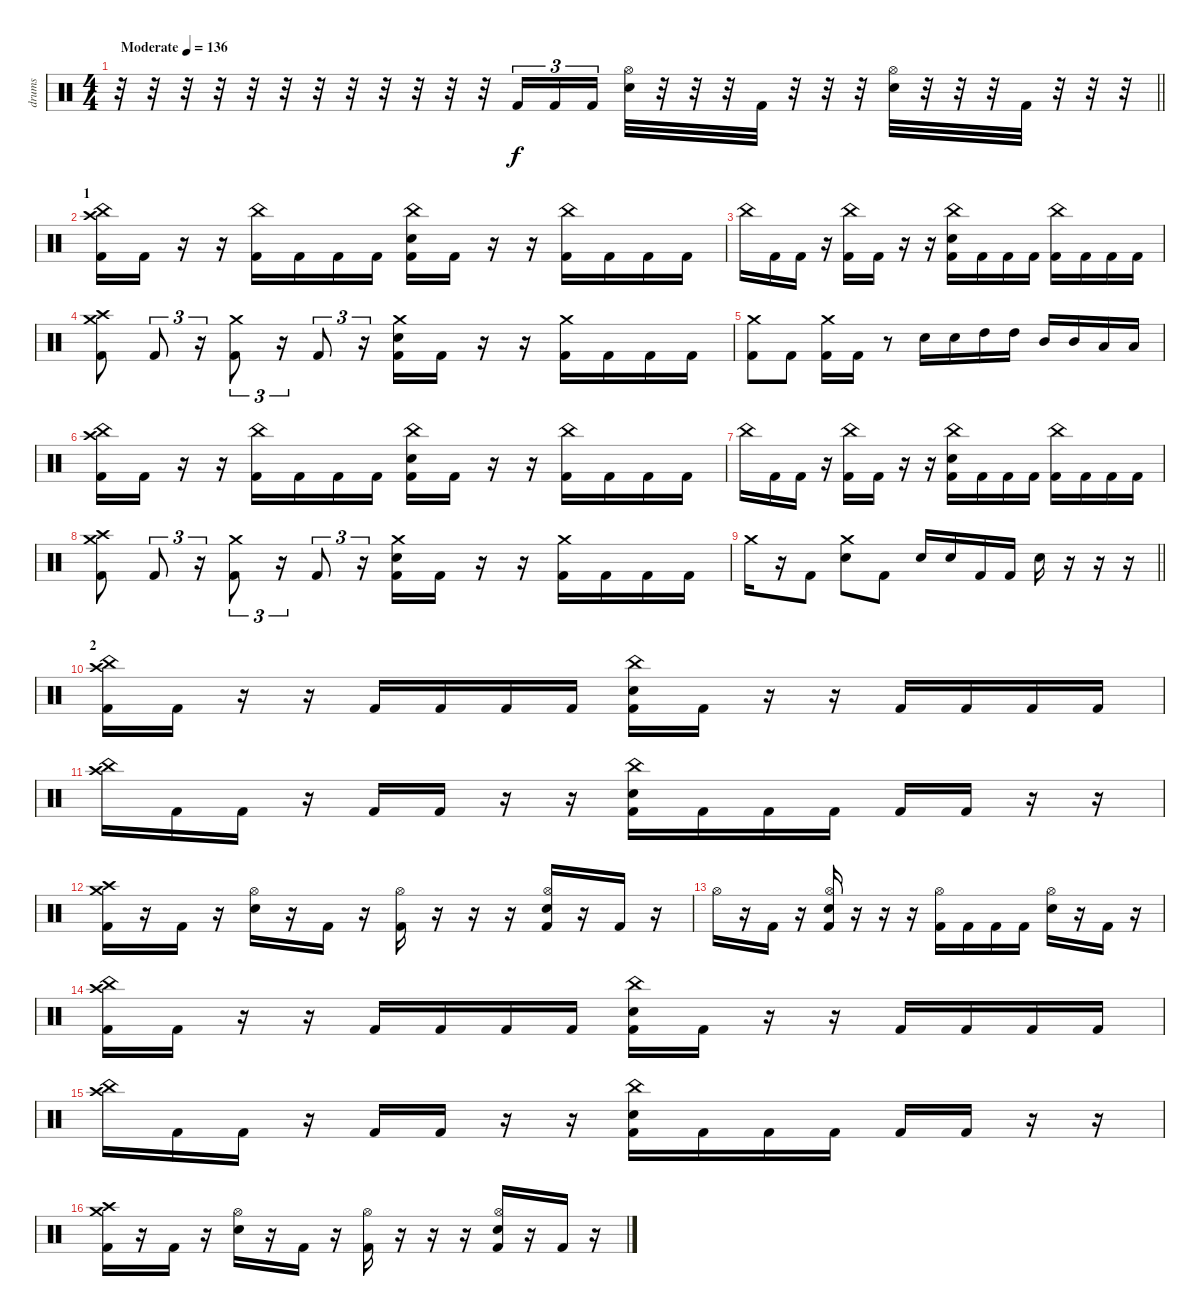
\track ("drums" "drums") {instrument percussion}
\staff {score}
\articulation defaults
\ts (4 4)
\tempo (136 "Moderate")
\clef neutral
\barLineRight lightlight
\ks c
r.32{dy f} r.32 r.32 r.32 r.32 r.32 r.32 r.32 r.32 r.32 r.32 r.32 "Kick (hit) 2".16{tu (3 2)} "Kick (hit) 2".16{tu (3 2)} "Kick (hit) 2".16{tu (3 2)} ("Hi-Hat (open)" "Electric Snare (hit)").32 r.32 r.32 r.32 "Kick (hit) 2".32 r.32 r.32 r.32 ("Hi-Hat (open)" "Electric Snare (hit)").32 r.32 r.32 r.32 "Kick (hit) 2".32 r.32 r.32 r.32 |
\section ("" "1")
("Crash high (hit)" "China (hit)" "Kick (hit) 2").16 "Kick (hit) 2".16 r.16 r.16 ("China (hit)" "Kick (hit) 2").16 "Kick (hit) 2".16 "Kick (hit) 2".16 "Kick (hit) 2".16 ("China (hit)" "Electric Snare (hit)" "Kick (hit) 2").16 "Kick (hit) 2".16 r.16 r.16 ("China (hit)" "Kick (hit) 2").16 "Kick (hit) 2".16 "Kick (hit) 2".16 "Kick (hit) 2".16 |
"China (hit)".16 "Kick (hit) 2".16 "Kick (hit) 2".16 r.16 ("China (hit)" "Kick (hit) 2").16 "Kick (hit) 2".16 r.16 r.16 ("China (hit)" "Electric Snare (hit)" "Kick (hit) 2").16 "Kick (hit) 2".16 "Kick (hit) 2".16 "Kick (hit) 2".16 ("China (hit)" "Kick (hit) 2").16 "Kick (hit) 2".16 "Kick (hit) 2".16 "Kick (hit) 2".16 |
("Crash medium (hit)" "Crash high (hit)" "Kick (hit) 2").8 "Kick (hit) 2".8{tu (3 2)} r.16{tu (3 2)} ("Crash medium (hit)" "Kick (hit) 2").8{tu (3 2)} r.16{tu (3 2)} "Kick (hit) 2".8{tu (3 2)} r.16{tu (3 2)} ("Crash medium (hit)" "Electric Snare (hit)" "Kick (hit) 2").16 "Kick (hit) 2".16 r.16 r.16 ("Crash medium (hit)" "Kick (hit) 2").16 "Kick (hit) 2".16 "Kick (hit) 2".16 "Kick (hit) 2".16 |
("Crash medium (hit)" "Kick (hit) 2").8 "Kick (hit) 2".8 ("Crash medium (hit)" "Kick (hit) 2").16 "Kick (hit) 2".16 r.8 "Electric Snare (hit)".16 "Electric Snare (hit)".16 "High Tom (hit)".16 "High Tom (hit)".16 "Mid Tom (hit)".16 "Mid Tom (hit)".16 "Low Floor Tom (hit)".16 "Low Floor Tom (hit)".16 |
("Crash high (hit)" "China (hit)" "Kick (hit) 2").16 "Kick (hit) 2".16 r.16 r.16 ("China (hit)" "Kick (hit) 2").16 "Kick (hit) 2".16 "Kick (hit) 2".16 "Kick (hit) 2".16 ("China (hit)" "Electric Snare (hit)" "Kick (hit) 2").16 "Kick (hit) 2".16 r.16 r.16 ("China (hit)" "Kick (hit) 2").16 "Kick (hit) 2".16 "Kick (hit) 2".16 "Kick (hit) 2".16 |
"China (hit)".16 "Kick (hit) 2".16 "Kick (hit) 2".16 r.16 ("China (hit)" "Kick (hit) 2").16 "Kick (hit) 2".16 r.16 r.16 ("China (hit)" "Electric Snare (hit)" "Kick (hit) 2").16 "Kick (hit) 2".16 "Kick (hit) 2".16 "Kick (hit) 2".16 ("China (hit)" "Kick (hit) 2").16 "Kick (hit) 2".16 "Kick (hit) 2".16 "Kick (hit) 2".16 |
("Crash medium (hit)" "Crash high (hit)" "Kick (hit) 2").8 "Kick (hit) 2".8{tu (3 2)} r.16{tu (3 2)} ("Crash medium (hit)" "Kick (hit) 2").8{tu (3 2)} r.16{tu (3 2)} "Kick (hit) 2".8{tu (3 2)} r.16{tu (3 2)} ("Crash medium (hit)" "Electric Snare (hit)" "Kick (hit) 2").16 "Kick (hit) 2".16 r.16 r.16 ("Crash medium (hit)" "Kick (hit) 2").16 "Kick (hit) 2".16 "Kick (hit) 2".16 "Kick (hit) 2".16 |
\barLineRight lightlight "Crash medium (hit)".16
r.16 "Kick (hit) 2".8 ("Crash medium (hit)" "Electric Snare (hit)").8 "Kick (hit) 2".8 "Electric Snare (hit)".16 "Electric Snare (hit)".16 "Kick (hit) 2".16 "Kick (hit) 2".16 "Electric Snare (hit)".16 r.16 r.16 r.16 |
\section ("" "2")
("Crash high (hit)" "China (hit)" "Kick (hit) 2").16 "Kick (hit) 2".16 r.16 r.16 "Kick (hit) 2".16 "Kick (hit) 2".16 "Kick (hit) 2".16 "Kick (hit) 2".16 ("China (hit)" "Electric Snare (hit)" "Kick (hit) 2").16 "Kick (hit) 2".16 r.16 r.16 "Kick (hit) 2".16 "Kick (hit) 2".16 "Kick (hit) 2".16 "Kick (hit) 2".16 |
("China (hit)" "Crash high (hit)").16 "Kick (hit) 2".16 "Kick (hit) 2".16 r.16 "Kick (hit) 2".16 "Kick (hit) 2".16 r.16 r.16 ("China (hit)" "Electric Snare (hit)" "Kick (hit) 2").16 "Kick (hit) 2".16 "Kick (hit) 2".16 "Kick (hit) 2".16 "Kick (hit) 2".16 "Kick (hit) 2".16 r.16 r.16 |
("Crash high (hit)" "Crash medium (hit)" "Kick (hit) 2").16 r.16 "Kick (hit) 2".16 r.16 ("Hi-Hat (open)" "Electric Snare (hit)").16 r.16 "Kick (hit) 2".16 r.16 ("Hi-Hat (open)" "Kick (hit) 2").16 r.16 r.16 r.16 ("Hi-Hat (open)" "Electric Snare (hit)" "Kick (hit) 2").16 r.16 "Kick (hit) 2".16 r.16 |
"Hi-Hat (open)".16 r.16 "Kick (hit) 2".16 r.16 ("Hi-Hat (open)" "Electric Snare (hit)" "Kick (hit) 2").16 r.16 r.16 r.16 ("Hi-Hat (open)" "Kick (hit) 2").16 "Kick (hit) 2".16 "Kick (hit) 2".16 "Kick (hit) 2".16 ("Hi-Hat (open)" "Electric Snare (hit)").16 r.16 "Kick (hit) 2".16 r.16 |
("China (hit)" "Crash high (hit)" "Kick (hit) 2").16 "Kick (hit) 2".16 r.16 r.16 "Kick (hit) 2".16 "Kick (hit) 2".16 "Kick (hit) 2".16 "Kick (hit) 2".16 ("China (hit)" "Electric Snare (hit)" "Kick (hit) 2").16 "Kick (hit) 2".16 r.16 r.16 "Kick (hit) 2".16 "Kick (hit) 2".16 "Kick (hit) 2".16 "Kick (hit) 2".16 |
("China (hit)" "Crash high (hit)").16 "Kick (hit) 2".16 "Kick (hit) 2".16 r.16 "Kick (hit) 2".16 "Kick (hit) 2".16 r.16 r.16 ("China (hit)" "Electric Snare (hit)" "Kick (hit) 2").16 "Kick (hit) 2".16 "Kick (hit) 2".16 "Kick (hit) 2".16 "Kick (hit) 2".16 "Kick (hit) 2".16 r.16 r.16 |
("Crash medium (hit)" "Crash high (hit)" "Kick (hit) 2").16 r.16 "Kick (hit) 2".16 r.16 ("Hi-Hat (open)" "Electric Snare (hit)").16 r.16 "Kick (hit) 2".16 r.16 ("Hi-Hat (open)" "Kick (hit) 2").16 r.16 r.16 r.16 ("Hi-Hat (open)" "Electric Snare (hit)" "Kick (hit) 2").16 r.16 "Kick (hit) 2".16 r.16
